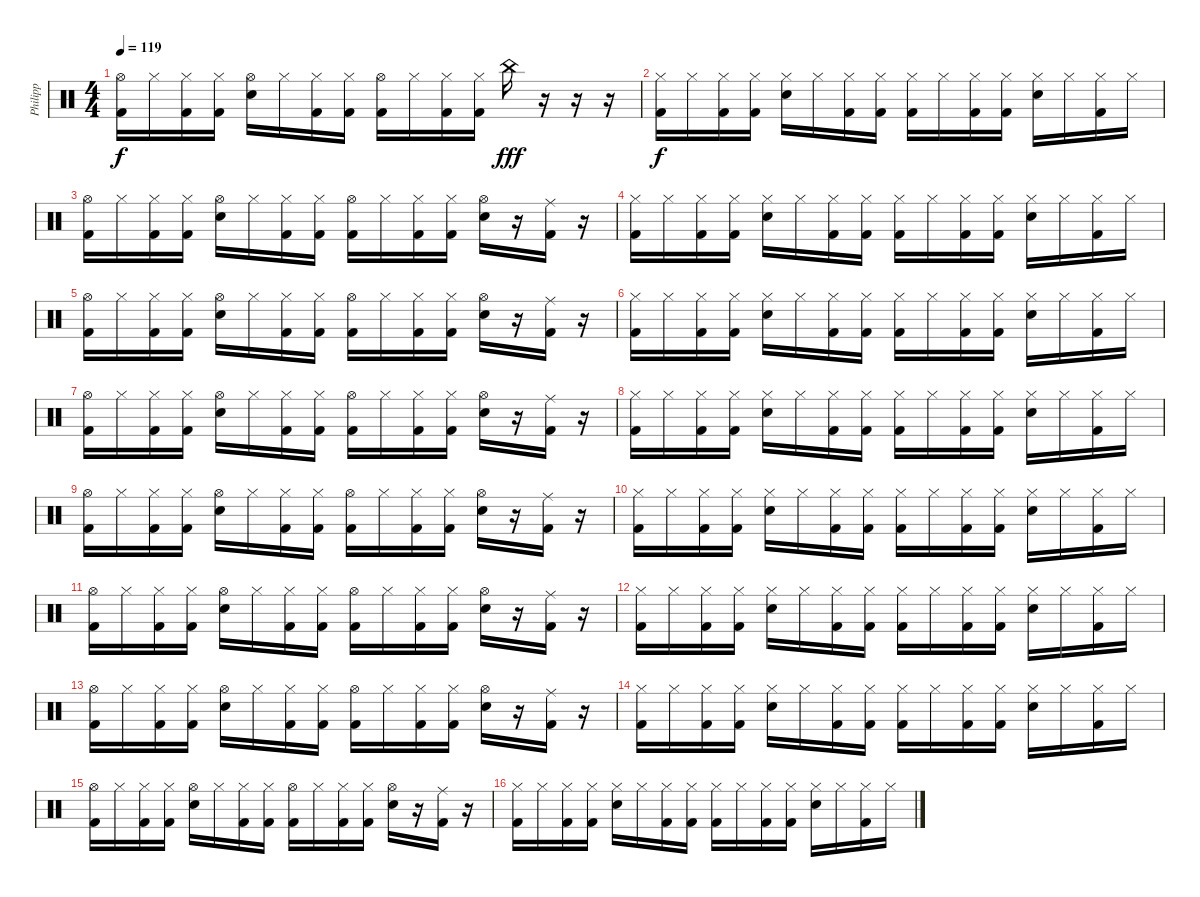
\track ("Philipp" "Philipp") {instrument percussion}
\staff {score}
\articulation defaults
\ts (4 4)
\tempo 119
\clef neutral
\ks c
("Hi-Hat (open)" "Kick (hit) 2").16{dy f} "Hi-Hat (closed)".16 ("Hi-Hat (closed)" "Kick (hit) 2").16 ("Hi-Hat (closed)" "Kick (hit) 2").16 ("Hi-Hat (open)" "Electric Snare (hit)").16 "Hi-Hat (closed)".16 ("Hi-Hat (closed)" "Kick (hit) 2").16 ("Hi-Hat (closed)" "Kick (hit) 2").16 ("Hi-Hat (open)" "Kick (hit) 2").16 "Hi-Hat (closed)".16 ("Hi-Hat (closed)" "Kick (hit) 2").16 ("Hi-Hat (closed)" "Kick (hit) 2").16 "China (hit)".16{dy fff} r.16 r.16 r.16 |
("Hi-Hat (closed)" "Kick (hit) 2").16{dy f} "Hi-Hat (closed)".16 ("Hi-Hat (closed)" "Kick (hit) 2").16 ("Hi-Hat (closed)" "Kick (hit) 2").16 ("Hi-Hat (closed)" "Electric Snare (hit)").16 "Hi-Hat (closed)".16 ("Hi-Hat (closed)" "Kick (hit) 2").16 ("Hi-Hat (closed)" "Kick (hit) 2").16 ("Hi-Hat (closed)" "Kick (hit) 2").16 "Hi-Hat (closed)".16 ("Hi-Hat (closed)" "Kick (hit) 2").16 ("Hi-Hat (closed)" "Kick (hit) 2").16 ("Hi-Hat (closed)" "Electric Snare (hit)").16 "Hi-Hat (closed)".16 ("Hi-Hat (closed)" "Kick (hit) 2").16 "Hi-Hat (closed)".16 |
("Hi-Hat (open)" "Kick (hit) 2").16 "Hi-Hat (closed)".16 ("Hi-Hat (closed)" "Kick (hit) 2").16 ("Hi-Hat (closed)" "Kick (hit) 2").16 ("Hi-Hat (open)" "Electric Snare (hit)").16 "Hi-Hat (closed)".16 ("Hi-Hat (closed)" "Kick (hit) 2").16 ("Hi-Hat (closed)" "Kick (hit) 2").16 ("Hi-Hat (open)" "Kick (hit) 2").16 "Hi-Hat (closed)".16 ("Hi-Hat (closed)" "Kick (hit) 2").16 ("Hi-Hat (closed)" "Kick (hit) 2").16 ("Hi-Hat (open)" "Electric Snare (hit)").16 r.16 ("Ride (middle)" "Kick (hit) 2").16 r.16 |
("Hi-Hat (closed)" "Kick (hit) 2").16 "Hi-Hat (closed)".16 ("Hi-Hat (closed)" "Kick (hit) 2").16 ("Hi-Hat (closed)" "Kick (hit) 2").16 ("Hi-Hat (closed)" "Electric Snare (hit)").16 "Hi-Hat (closed)".16 ("Hi-Hat (closed)" "Kick (hit) 2").16 ("Hi-Hat (closed)" "Kick (hit) 2").16 ("Hi-Hat (closed)" "Kick (hit) 2").16 "Hi-Hat (closed)".16 ("Hi-Hat (closed)" "Kick (hit) 2").16 ("Hi-Hat (closed)" "Kick (hit) 2").16 ("Hi-Hat (closed)" "Electric Snare (hit)").16 "Hi-Hat (closed)".16 ("Hi-Hat (closed)" "Kick (hit) 2").16 "Hi-Hat (closed)".16 |
("Hi-Hat (open)" "Kick (hit) 2").16 "Hi-Hat (closed)".16 ("Hi-Hat (closed)" "Kick (hit) 2").16 ("Hi-Hat (closed)" "Kick (hit) 2").16 ("Hi-Hat (open)" "Electric Snare (hit)").16 "Hi-Hat (closed)".16 ("Hi-Hat (closed)" "Kick (hit) 2").16 ("Hi-Hat (closed)" "Kick (hit) 2").16 ("Hi-Hat (open)" "Kick (hit) 2").16 "Hi-Hat (closed)".16 ("Hi-Hat (closed)" "Kick (hit) 2").16 ("Hi-Hat (closed)" "Kick (hit) 2").16 ("Hi-Hat (open)" "Electric Snare (hit)").16 r.16 ("Ride (middle)" "Kick (hit) 2").16 r.16 |
("Hi-Hat (closed)" "Kick (hit) 2").16 "Hi-Hat (closed)".16 ("Hi-Hat (closed)" "Kick (hit) 2").16 ("Hi-Hat (closed)" "Kick (hit) 2").16 ("Hi-Hat (closed)" "Electric Snare (hit)").16 "Hi-Hat (closed)".16 ("Hi-Hat (closed)" "Kick (hit) 2").16 ("Hi-Hat (closed)" "Kick (hit) 2").16 ("Hi-Hat (closed)" "Kick (hit) 2").16 "Hi-Hat (closed)".16 ("Hi-Hat (closed)" "Kick (hit) 2").16 ("Hi-Hat (closed)" "Kick (hit) 2").16 ("Hi-Hat (closed)" "Electric Snare (hit)").16 "Hi-Hat (closed)".16 ("Hi-Hat (closed)" "Kick (hit) 2").16 "Hi-Hat (closed)".16 |
("Hi-Hat (open)" "Kick (hit) 2").16 "Hi-Hat (closed)".16 ("Hi-Hat (closed)" "Kick (hit) 2").16 ("Hi-Hat (closed)" "Kick (hit) 2").16 ("Hi-Hat (open)" "Electric Snare (hit)").16 "Hi-Hat (closed)".16 ("Hi-Hat (closed)" "Kick (hit) 2").16 ("Hi-Hat (closed)" "Kick (hit) 2").16 ("Hi-Hat (open)" "Kick (hit) 2").16 "Hi-Hat (closed)".16 ("Hi-Hat (closed)" "Kick (hit) 2").16 ("Hi-Hat (closed)" "Kick (hit) 2").16 ("Hi-Hat (open)" "Electric Snare (hit)").16 r.16 ("Ride (middle)" "Kick (hit) 2").16 r.16 |
("Hi-Hat (closed)" "Kick (hit) 2").16 "Hi-Hat (closed)".16 ("Hi-Hat (closed)" "Kick (hit) 2").16 ("Hi-Hat (closed)" "Kick (hit) 2").16 ("Hi-Hat (closed)" "Electric Snare (hit)").16 "Hi-Hat (closed)".16 ("Hi-Hat (closed)" "Kick (hit) 2").16 ("Hi-Hat (closed)" "Kick (hit) 2").16 ("Hi-Hat (closed)" "Kick (hit) 2").16 "Hi-Hat (closed)".16 ("Hi-Hat (closed)" "Kick (hit) 2").16 ("Hi-Hat (closed)" "Kick (hit) 2").16 ("Hi-Hat (closed)" "Electric Snare (hit)").16 "Hi-Hat (closed)".16 ("Hi-Hat (closed)" "Kick (hit) 2").16 "Hi-Hat (closed)".16 |
("Hi-Hat (open)" "Kick (hit) 2").16 "Hi-Hat (closed)".16 ("Hi-Hat (closed)" "Kick (hit) 2").16 ("Hi-Hat (closed)" "Kick (hit) 2").16 ("Hi-Hat (open)" "Electric Snare (hit)").16 "Hi-Hat (closed)".16 ("Hi-Hat (closed)" "Kick (hit) 2").16 ("Hi-Hat (closed)" "Kick (hit) 2").16 ("Hi-Hat (open)" "Kick (hit) 2").16 "Hi-Hat (closed)".16 ("Hi-Hat (closed)" "Kick (hit) 2").16 ("Hi-Hat (closed)" "Kick (hit) 2").16 ("Hi-Hat (open)" "Electric Snare (hit)").16 r.16 ("Ride (middle)" "Kick (hit) 2").16 r.16 |
("Hi-Hat (closed)" "Kick (hit) 2").16 "Hi-Hat (closed)".16 ("Hi-Hat (closed)" "Kick (hit) 2").16 ("Hi-Hat (closed)" "Kick (hit) 2").16 ("Hi-Hat (closed)" "Electric Snare (hit)").16 "Hi-Hat (closed)".16 ("Hi-Hat (closed)" "Kick (hit) 2").16 ("Hi-Hat (closed)" "Kick (hit) 2").16 ("Hi-Hat (closed)" "Kick (hit) 2").16 "Hi-Hat (closed)".16 ("Hi-Hat (closed)" "Kick (hit) 2").16 ("Hi-Hat (closed)" "Kick (hit) 2").16 ("Hi-Hat (closed)" "Electric Snare (hit)").16 "Hi-Hat (closed)".16 ("Hi-Hat (closed)" "Kick (hit) 2").16 "Hi-Hat (closed)".16 |
("Hi-Hat (open)" "Kick (hit) 2").16 "Hi-Hat (closed)".16 ("Hi-Hat (closed)" "Kick (hit) 2").16 ("Hi-Hat (closed)" "Kick (hit) 2").16 ("Hi-Hat (open)" "Electric Snare (hit)").16 "Hi-Hat (closed)".16 ("Hi-Hat (closed)" "Kick (hit) 2").16 ("Hi-Hat (closed)" "Kick (hit) 2").16 ("Hi-Hat (open)" "Kick (hit) 2").16 "Hi-Hat (closed)".16 ("Hi-Hat (closed)" "Kick (hit) 2").16 ("Hi-Hat (closed)" "Kick (hit) 2").16 ("Hi-Hat (open)" "Electric Snare (hit)").16 r.16 ("Ride (middle)" "Kick (hit) 2").16 r.16 |
("Hi-Hat (closed)" "Kick (hit) 2").16 "Hi-Hat (closed)".16 ("Hi-Hat (closed)" "Kick (hit) 2").16 ("Hi-Hat (closed)" "Kick (hit) 2").16 ("Hi-Hat (closed)" "Electric Snare (hit)").16 "Hi-Hat (closed)".16 ("Hi-Hat (closed)" "Kick (hit) 2").16 ("Hi-Hat (closed)" "Kick (hit) 2").16 ("Hi-Hat (closed)" "Kick (hit) 2").16 "Hi-Hat (closed)".16 ("Hi-Hat (closed)" "Kick (hit) 2").16 ("Hi-Hat (closed)" "Kick (hit) 2").16 ("Hi-Hat (closed)" "Electric Snare (hit)").16 "Hi-Hat (closed)".16 ("Hi-Hat (closed)" "Kick (hit) 2").16 "Hi-Hat (closed)".16 |
("Hi-Hat (open)" "Kick (hit) 2").16 "Hi-Hat (closed)".16 ("Hi-Hat (closed)" "Kick (hit) 2").16 ("Hi-Hat (closed)" "Kick (hit) 2").16 ("Hi-Hat (open)" "Electric Snare (hit)").16 "Hi-Hat (closed)".16 ("Hi-Hat (closed)" "Kick (hit) 2").16 ("Hi-Hat (closed)" "Kick (hit) 2").16 ("Hi-Hat (open)" "Kick (hit) 2").16 "Hi-Hat (closed)".16 ("Hi-Hat (closed)" "Kick (hit) 2").16 ("Hi-Hat (closed)" "Kick (hit) 2").16 ("Hi-Hat (open)" "Electric Snare (hit)").16 r.16 ("Ride (middle)" "Kick (hit) 2").16 r.16 |
("Hi-Hat (closed)" "Kick (hit) 2").16 "Hi-Hat (closed)".16 ("Hi-Hat (closed)" "Kick (hit) 2").16 ("Hi-Hat (closed)" "Kick (hit) 2").16 ("Hi-Hat (closed)" "Electric Snare (hit)").16 "Hi-Hat (closed)".16 ("Hi-Hat (closed)" "Kick (hit) 2").16 ("Hi-Hat (closed)" "Kick (hit) 2").16 ("Hi-Hat (closed)" "Kick (hit) 2").16 "Hi-Hat (closed)".16 ("Hi-Hat (closed)" "Kick (hit) 2").16 ("Hi-Hat (closed)" "Kick (hit) 2").16 ("Hi-Hat (closed)" "Electric Snare (hit)").16 "Hi-Hat (closed)".16 ("Hi-Hat (closed)" "Kick (hit) 2").16 "Hi-Hat (closed)".16 |
("Hi-Hat (open)" "Kick (hit) 2").16 "Hi-Hat (closed)".16 ("Hi-Hat (closed)" "Kick (hit) 2").16 ("Hi-Hat (closed)" "Kick (hit) 2").16 ("Hi-Hat (open)" "Electric Snare (hit)").16 "Hi-Hat (closed)".16 ("Hi-Hat (closed)" "Kick (hit) 2").16 ("Hi-Hat (closed)" "Kick (hit) 2").16 ("Hi-Hat (open)" "Kick (hit) 2").16 "Hi-Hat (closed)".16 ("Hi-Hat (closed)" "Kick (hit) 2").16 ("Hi-Hat (closed)" "Kick (hit) 2").16 ("Hi-Hat (open)" "Electric Snare (hit)").16 r.16 ("Ride (middle)" "Kick (hit) 2").16 r.16 |
("Hi-Hat (closed)" "Kick (hit) 2").16 "Hi-Hat (closed)".16 ("Hi-Hat (closed)" "Kick (hit) 2").16 ("Hi-Hat (closed)" "Kick (hit) 2").16 ("Hi-Hat (closed)" "Electric Snare (hit)").16 "Hi-Hat (closed)".16 ("Hi-Hat (closed)" "Kick (hit) 2").16 ("Hi-Hat (closed)" "Kick (hit) 2").16 ("Hi-Hat (closed)" "Kick (hit) 2").16 "Hi-Hat (closed)".16 ("Hi-Hat (closed)" "Kick (hit) 2").16 ("Hi-Hat (closed)" "Kick (hit) 2").16 ("Hi-Hat (closed)" "Electric Snare (hit)").16 "Hi-Hat (closed)".16 ("Hi-Hat (closed)" "Kick (hit) 2").16 "Hi-Hat (closed)".16
